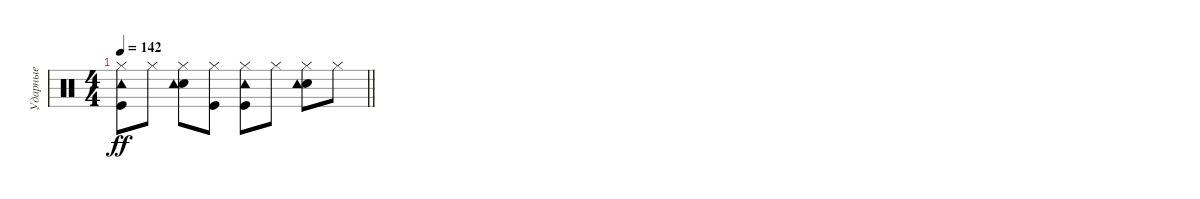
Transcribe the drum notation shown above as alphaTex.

\track ("Ударные" "Ударные") {instrument percussion}
\staff {score}
\articulation defaults
\ts (4 4)
\tempo 142
\clef neutral
\barLineRight lightlight
\ks c
("Hi-Hat (closed)" "Kick (hit)" "Tambourine (hit)").8{dy ff} "Hi-Hat (closed)".8 ("Hi-Hat (closed)" "Electric Snare (hit)" "Tambourine (hit)").8 ("Hi-Hat (closed)" "Kick (hit)").8 ("Hi-Hat (closed)" "Tambourine (hit)" "Kick (hit)").8 "Hi-Hat (closed)".8 ("Hi-Hat (closed)" "Electric Snare (hit)" "Tambourine (hit)").8 "Hi-Hat (closed)".8
